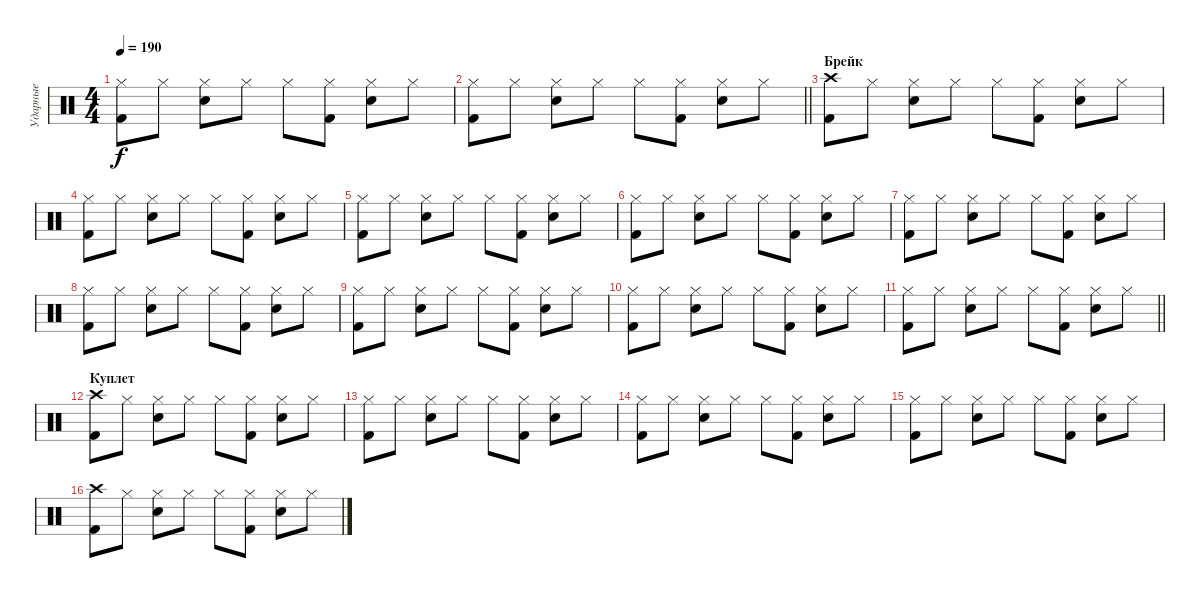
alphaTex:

\track ("Ударные" "Ударные") {instrument percussion}
\staff {score}
\articulation defaults
\ts (4 4)
\tempo 190
\clef neutral
\ks c
("Hi-Hat (closed)" "Kick (hit) 2").8{dy f} "Hi-Hat (closed)".8 ("Hi-Hat (closed)" "Snare (hit) 2").8 "Hi-Hat (closed)".8 "Hi-Hat (closed)".8 ("Hi-Hat (closed)" "Kick (hit) 2").8 ("Hi-Hat (closed)" "Snare (hit) 2").8 "Hi-Hat (closed)".8 |
\barLineRight lightlight
("Hi-Hat (closed)" "Kick (hit) 2").8 "Hi-Hat (closed)".8 ("Hi-Hat (closed)" "Snare (hit) 2").8 "Hi-Hat (closed)".8 "Hi-Hat (closed)".8 ("Hi-Hat (closed)" "Kick (hit) 2").8 ("Hi-Hat (closed)" "Snare (hit) 2").8 "Hi-Hat (closed)".8 |
\section ("" "Брейк")
("Crash high (hit)" "Kick (hit) 2").8 "Hi-Hat (closed)".8 ("Hi-Hat (closed)" "Snare (hit) 2").8 "Hi-Hat (closed)".8 "Hi-Hat (closed)".8 ("Hi-Hat (closed)" "Kick (hit) 2").8 ("Hi-Hat (closed)" "Snare (hit) 2").8 "Hi-Hat (closed)".8 |
("Hi-Hat (closed)" "Kick (hit) 2").8 "Hi-Hat (closed)".8 ("Hi-Hat (closed)" "Snare (hit) 2").8 "Hi-Hat (closed)".8 "Hi-Hat (closed)".8 ("Hi-Hat (closed)" "Kick (hit) 2").8 ("Hi-Hat (closed)" "Snare (hit) 2").8 "Hi-Hat (closed)".8 |
("Hi-Hat (closed)" "Kick (hit) 2").8 "Hi-Hat (closed)".8 ("Hi-Hat (closed)" "Snare (hit) 2").8 "Hi-Hat (closed)".8 "Hi-Hat (closed)".8 ("Hi-Hat (closed)" "Kick (hit) 2").8 ("Hi-Hat (closed)" "Snare (hit) 2").8 "Hi-Hat (closed)".8 |
("Hi-Hat (closed)" "Kick (hit) 2").8 "Hi-Hat (closed)".8 ("Hi-Hat (closed)" "Snare (hit) 2").8 "Hi-Hat (closed)".8 "Hi-Hat (closed)".8 ("Hi-Hat (closed)" "Kick (hit) 2").8 ("Hi-Hat (closed)" "Snare (hit) 2").8 "Hi-Hat (closed)".8 |
("Hi-Hat (closed)" "Kick (hit) 2").8 "Hi-Hat (closed)".8 ("Hi-Hat (closed)" "Snare (hit) 2").8 "Hi-Hat (closed)".8 "Hi-Hat (closed)".8 ("Hi-Hat (closed)" "Kick (hit) 2").8 ("Hi-Hat (closed)" "Snare (hit) 2").8 "Hi-Hat (closed)".8 |
("Hi-Hat (closed)" "Kick (hit) 2").8 "Hi-Hat (closed)".8 ("Hi-Hat (closed)" "Snare (hit) 2").8 "Hi-Hat (closed)".8 "Hi-Hat (closed)".8 ("Hi-Hat (closed)" "Kick (hit) 2").8 ("Hi-Hat (closed)" "Snare (hit) 2").8 "Hi-Hat (closed)".8 |
("Hi-Hat (closed)" "Kick (hit) 2").8 "Hi-Hat (closed)".8 ("Hi-Hat (closed)" "Snare (hit) 2").8 "Hi-Hat (closed)".8 "Hi-Hat (closed)".8 ("Hi-Hat (closed)" "Kick (hit) 2").8 ("Hi-Hat (closed)" "Snare (hit) 2").8 "Hi-Hat (closed)".8 |
("Hi-Hat (closed)" "Kick (hit) 2").8 "Hi-Hat (closed)".8 ("Hi-Hat (closed)" "Snare (hit) 2").8 "Hi-Hat (closed)".8 "Hi-Hat (closed)".8 ("Hi-Hat (closed)" "Kick (hit) 2").8 ("Hi-Hat (closed)" "Snare (hit) 2").8 "Hi-Hat (closed)".8 |
\barLineRight lightlight
("Hi-Hat (closed)" "Kick (hit) 2").8 "Hi-Hat (closed)".8 ("Hi-Hat (closed)" "Snare (hit) 2").8 "Hi-Hat (closed)".8 "Hi-Hat (closed)".8 ("Hi-Hat (closed)" "Kick (hit) 2").8 ("Hi-Hat (closed)" "Snare (hit) 2").8 "Hi-Hat (closed)".8 |
\section ("" "Куплет")
("Crash high (hit)" "Kick (hit) 2").8 "Hi-Hat (closed)".8 ("Hi-Hat (closed)" "Snare (hit) 2").8 "Hi-Hat (closed)".8 "Hi-Hat (closed)".8 ("Hi-Hat (closed)" "Kick (hit) 2").8 ("Hi-Hat (closed)" "Snare (hit) 2").8 "Hi-Hat (closed)".8 |
("Hi-Hat (closed)" "Kick (hit) 2").8 "Hi-Hat (closed)".8 ("Hi-Hat (closed)" "Snare (hit) 2").8 "Hi-Hat (closed)".8 "Hi-Hat (closed)".8 ("Hi-Hat (closed)" "Kick (hit) 2").8 ("Hi-Hat (closed)" "Snare (hit) 2").8 "Hi-Hat (closed)".8 |
("Hi-Hat (closed)" "Kick (hit) 2").8 "Hi-Hat (closed)".8 ("Hi-Hat (closed)" "Snare (hit) 2").8 "Hi-Hat (closed)".8 "Hi-Hat (closed)".8 ("Hi-Hat (closed)" "Kick (hit) 2").8 ("Hi-Hat (closed)" "Snare (hit) 2").8 "Hi-Hat (closed)".8 |
("Hi-Hat (closed)" "Kick (hit) 2").8 "Hi-Hat (closed)".8 ("Hi-Hat (closed)" "Snare (hit) 2").8 "Hi-Hat (closed)".8 "Hi-Hat (closed)".8 ("Hi-Hat (closed)" "Kick (hit) 2").8 ("Hi-Hat (closed)" "Snare (hit) 2").8 "Hi-Hat (closed)".8 |
("Crash high (hit)" "Kick (hit) 2").8 "Hi-Hat (closed)".8 ("Hi-Hat (closed)" "Snare (hit) 2").8 "Hi-Hat (closed)".8 "Hi-Hat (closed)".8 ("Hi-Hat (closed)" "Kick (hit) 2").8 ("Hi-Hat (closed)" "Snare (hit) 2").8 "Hi-Hat (closed)".8
